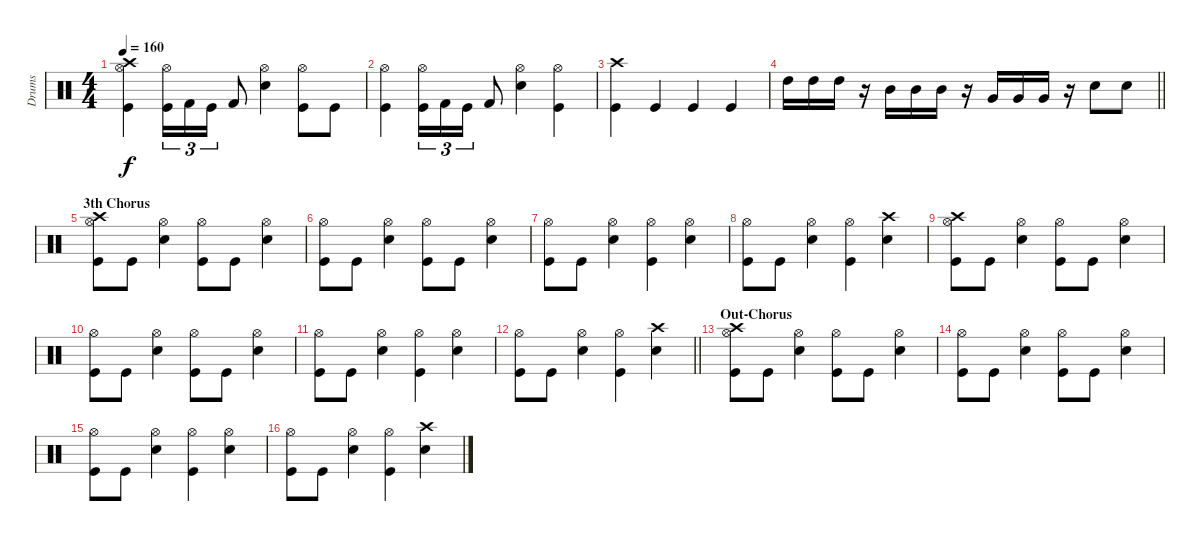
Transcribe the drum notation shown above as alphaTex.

\track ("Drums" "Drums") {instrument percussion}
\staff {score}
\articulation defaults
\ts (4 4)
\tempo 160
\clef neutral
\ks c
("Crash high (hit)" "Hi-Hat (open)" "Kick (hit)").4{dy f} ("Hi-Hat (open)" "Kick (hit)").16{tu (3 2)} "Kick (hit) 2".16{tu (3 2)} "Kick (hit)".16{tu (3 2)} "Kick (hit) 2".8 ("Hi-Hat (open)" "Snare (hit) 2").4 ("Hi-Hat (open)" "Kick (hit)").8 "Kick (hit)".8 |
("Hi-Hat (open)" "Kick (hit)").4 ("Hi-Hat (open)" "Kick (hit)").16{tu (3 2)} "Kick (hit) 2".16{tu (3 2)} "Kick (hit)".16{tu (3 2)} "Kick (hit) 2".8 ("Hi-Hat (open)" "Snare (hit) 2").4 ("Hi-Hat (open)" "Kick (hit)").4 |
("Crash high (hit)" "Kick (hit)").4 "Kick (hit)".4 "Kick (hit)".4 "Kick (hit)".4 |
\barLineRight lightlight "High Tom (hit)".16 "High Tom (hit)".16 "High Tom (hit)".16
r.16 "Mid Tom (hit)".16 "Mid Tom (hit)".16 "Mid Tom (hit)".16 r.16 "Very Low Tom (hit)".16 "Very Low Tom (hit)".16 "Very Low Tom (hit)".16 r.16 "Snare (hit) 2".8 "Snare (hit) 2".8 |
\section ("" "3th Chorus")
("Crash high (hit)" "Hi-Hat (open)" "Kick (hit)").8 "Kick (hit)".8 ("Hi-Hat (open)" "Snare (hit) 2").4 ("Hi-Hat (open)" "Kick (hit)").8 "Kick (hit)".8 ("Hi-Hat (open)" "Snare (hit) 2").4 |
("Hi-Hat (open)" "Kick (hit)").8 "Kick (hit)".8 ("Hi-Hat (open)" "Snare (hit) 2").4 ("Hi-Hat (open)" "Kick (hit)").8 "Kick (hit)".8 ("Hi-Hat (open)" "Snare (hit) 2").4 |
("Hi-Hat (open)" "Kick (hit)").8 "Kick (hit)".8 ("Hi-Hat (open)" "Snare (hit) 2").4 ("Hi-Hat (open)" "Kick (hit)").4 ("Hi-Hat (open)" "Snare (hit) 2").4 |
("Hi-Hat (open)" "Kick (hit)").8 "Kick (hit)".8 ("Hi-Hat (open)" "Snare (hit) 2").4 ("Hi-Hat (open)" "Kick (hit)").4 ("Crash high (hit)" "Snare (hit) 2").4 |
("Crash high (hit)" "Hi-Hat (open)" "Kick (hit)").8 "Kick (hit)".8 ("Hi-Hat (open)" "Snare (hit) 2").4 ("Hi-Hat (open)" "Kick (hit)").8 "Kick (hit)".8 ("Hi-Hat (open)" "Snare (hit) 2").4 |
("Hi-Hat (open)" "Kick (hit)").8 "Kick (hit)".8 ("Hi-Hat (open)" "Snare (hit) 2").4 ("Hi-Hat (open)" "Kick (hit)").8 "Kick (hit)".8 ("Hi-Hat (open)" "Snare (hit) 2").4 |
("Hi-Hat (open)" "Kick (hit)").8 "Kick (hit)".8 ("Hi-Hat (open)" "Snare (hit) 2").4 ("Hi-Hat (open)" "Kick (hit)").4 ("Hi-Hat (open)" "Snare (hit) 2").4 |
\barLineRight lightlight
("Hi-Hat (open)" "Kick (hit)").8 "Kick (hit)".8 ("Hi-Hat (open)" "Snare (hit) 2").4 ("Hi-Hat (open)" "Kick (hit)").4 ("Crash high (hit)" "Snare (hit) 2").4 |
\section ("" "Out-Chorus")
("Crash high (hit)" "Hi-Hat (open)" "Kick (hit)").8 "Kick (hit)".8 ("Hi-Hat (open)" "Snare (hit) 2").4 ("Hi-Hat (open)" "Kick (hit)").8 "Kick (hit)".8 ("Hi-Hat (open)" "Snare (hit) 2").4 |
("Hi-Hat (open)" "Kick (hit)").8 "Kick (hit)".8 ("Hi-Hat (open)" "Snare (hit) 2").4 ("Hi-Hat (open)" "Kick (hit)").8 "Kick (hit)".8 ("Hi-Hat (open)" "Snare (hit) 2").4 |
("Hi-Hat (open)" "Kick (hit)").8 "Kick (hit)".8 ("Hi-Hat (open)" "Snare (hit) 2").4 ("Hi-Hat (open)" "Kick (hit)").4 ("Hi-Hat (open)" "Snare (hit) 2").4 |
("Hi-Hat (open)" "Kick (hit)").8 "Kick (hit)".8 ("Hi-Hat (open)" "Snare (hit) 2").4 ("Hi-Hat (open)" "Kick (hit)").4 ("Crash high (hit)" "Snare (hit) 2").4
